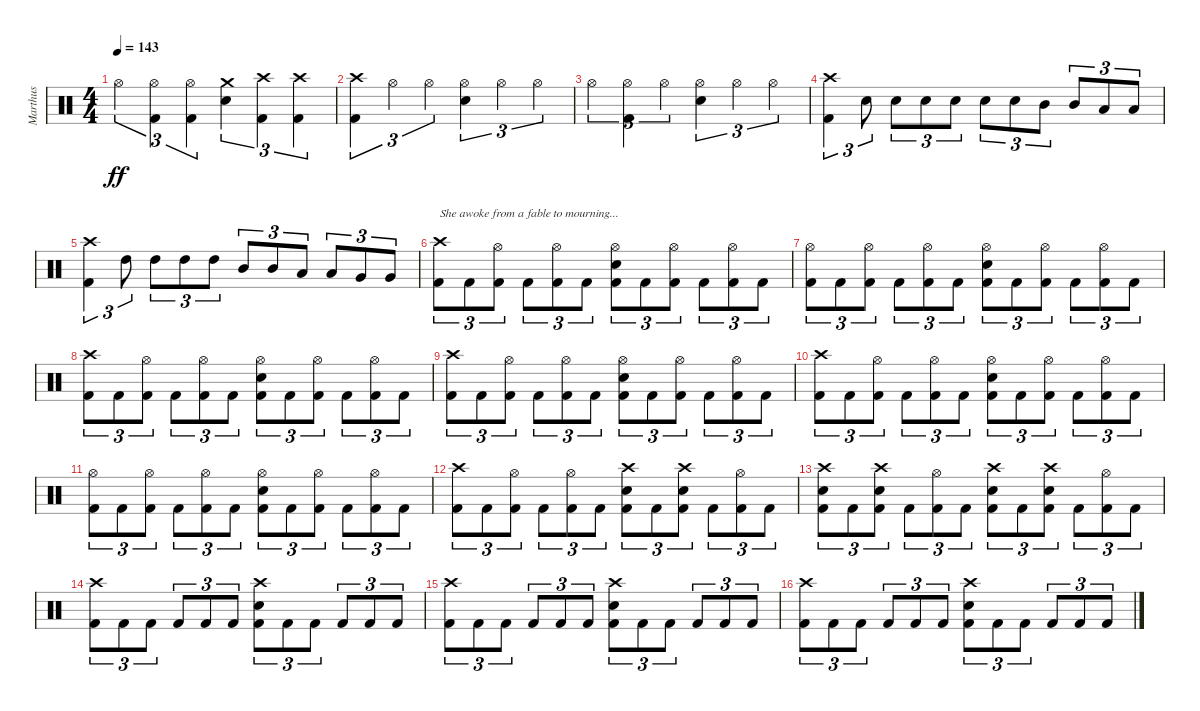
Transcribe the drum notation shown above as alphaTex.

\track ("Marthus" "Marthus") {instrument percussion}
\staff {score}
\articulation defaults
\ts (4 4)
\tempo 143
\clef neutral
\ks c "Hi-Hat (open)".4{tu (3 2) dy ff}
("Hi-Hat (open)" "Kick (hit) 2").4{tu (3 2)} ("Hi-Hat (open)" "Kick (hit) 2").4{tu (3 2)} ("Crash medium (hit)" "Electric Snare (hit)").4{tu (3 2)} ("Crash high (hit)" "Kick (hit) 2").4{tu (3 2)} ("Crash high (hit)" "Kick (hit) 2").4{tu (3 2)} |
("Crash high (hit)" "Kick (hit) 2").4{tu (3 2)} "Hi-Hat (open)".4{tu (3 2)} "Hi-Hat (open)".4{tu (3 2)} ("Hi-Hat (open)" "Electric Snare (hit)").4{tu (3 2)} "Hi-Hat (open)".4{tu (3 2)} "Hi-Hat (open)".4{tu (3 2)} |
"Hi-Hat (open)".4{tu (3 2)} ("Hi-Hat (open)" "Kick (hit) 2").4{tu (3 2)} "Hi-Hat (open)".4{tu (3 2)} ("Hi-Hat (open)" "Electric Snare (hit)").4{tu (3 2)} "Hi-Hat (open)".4{tu (3 2)} "Hi-Hat (open)".4{tu (3 2)} |
("Crash high (hit)" "Kick (hit) 2").4{tu (3 2)} "Electric Snare (hit)".8{tu (3 2)} "Electric Snare (hit)".8{tu (3 2)} "Electric Snare (hit)".8{tu (3 2)} "Electric Snare (hit)".8{tu (3 2)} "Electric Snare (hit)".8{tu (3 2)} "Electric Snare (hit)".8{tu (3 2)} "Mid Tom (hit)".8{tu (3 2)} "Mid Tom (hit)".8{tu (3 2)} "Low Tom (hit)".8{tu (3 2)} "Low Tom (hit)".8{tu (3 2)} |
("Crash high (hit)" "Kick (hit) 2").4{tu (3 2)} "High Tom (hit)".8{tu (3 2)} "High Tom (hit)".8{tu (3 2)} "High Tom (hit)".8{tu (3 2)} "High Tom (hit)".8{tu (3 2)} "Mid Tom (hit)".8{tu (3 2)} "Mid Tom (hit)".8{tu (3 2)} "Low Tom (hit)".8{tu (3 2)} "Low Tom (hit)".8{tu (3 2)} "Very Low Tom (hit)".8{tu (3 2)} "Very Low Tom (hit)".8{tu (3 2)} |
("Crash high (hit)" "Kick (hit) 2").8{tu (3 2) txt "She awoke from a fable to mourning..."} "Kick (hit) 2".8{tu (3 2)} ("Hi-Hat (open)" "Kick (hit) 2").8{tu (3 2)} "Kick (hit) 2".8{tu (3 2)} ("Hi-Hat (open)" "Kick (hit) 2").8{tu (3 2)} "Kick (hit) 2".8{tu (3 2)} ("Hi-Hat (open)" "Electric Snare (hit)" "Kick (hit) 2").8{tu (3 2)} "Kick (hit) 2".8{tu (3 2)} ("Hi-Hat (open)" "Kick (hit) 2").8{tu (3 2)} "Kick (hit) 2".8{tu (3 2)} ("Hi-Hat (open)" "Kick (hit) 2").8{tu (3 2)} "Kick (hit) 2".8{tu (3 2)} |
("Hi-Hat (open)" "Kick (hit) 2").8{tu (3 2)} "Kick (hit) 2".8{tu (3 2)} ("Hi-Hat (open)" "Kick (hit) 2").8{tu (3 2)} "Kick (hit) 2".8{tu (3 2)} ("Hi-Hat (open)" "Kick (hit) 2").8{tu (3 2)} "Kick (hit) 2".8{tu (3 2)} ("Hi-Hat (open)" "Electric Snare (hit)" "Kick (hit) 2").8{tu (3 2)} "Kick (hit) 2".8{tu (3 2)} ("Hi-Hat (open)" "Kick (hit) 2").8{tu (3 2)} "Kick (hit) 2".8{tu (3 2)} ("Hi-Hat (open)" "Kick (hit) 2").8{tu (3 2)} "Kick (hit) 2".8{tu (3 2)} |
("Crash high (hit)" "Kick (hit) 2").8{tu (3 2)} "Kick (hit) 2".8{tu (3 2)} ("Hi-Hat (open)" "Kick (hit) 2").8{tu (3 2)} "Kick (hit) 2".8{tu (3 2)} ("Hi-Hat (open)" "Kick (hit) 2").8{tu (3 2)} "Kick (hit) 2".8{tu (3 2)} ("Hi-Hat (open)" "Electric Snare (hit)" "Kick (hit) 2").8{tu (3 2)} "Kick (hit) 2".8{tu (3 2)} ("Hi-Hat (open)" "Kick (hit) 2").8{tu (3 2)} "Kick (hit) 2".8{tu (3 2)} ("Hi-Hat (open)" "Kick (hit) 2").8{tu (3 2)} "Kick (hit) 2".8{tu (3 2)} |
("Crash high (hit)" "Kick (hit) 2").8{tu (3 2)} "Kick (hit) 2".8{tu (3 2)} ("Hi-Hat (open)" "Kick (hit) 2").8{tu (3 2)} "Kick (hit) 2".8{tu (3 2)} ("Hi-Hat (open)" "Kick (hit) 2").8{tu (3 2)} "Kick (hit) 2".8{tu (3 2)} ("Hi-Hat (open)" "Electric Snare (hit)" "Kick (hit) 2").8{tu (3 2)} "Kick (hit) 2".8{tu (3 2)} ("Hi-Hat (open)" "Kick (hit) 2").8{tu (3 2)} "Kick (hit) 2".8{tu (3 2)} ("Hi-Hat (open)" "Kick (hit) 2").8{tu (3 2)} "Kick (hit) 2".8{tu (3 2)} |
("Crash high (hit)" "Kick (hit) 2").8{tu (3 2)} "Kick (hit) 2".8{tu (3 2)} ("Hi-Hat (open)" "Kick (hit) 2").8{tu (3 2)} "Kick (hit) 2".8{tu (3 2)} ("Hi-Hat (open)" "Kick (hit) 2").8{tu (3 2)} "Kick (hit) 2".8{tu (3 2)} ("Hi-Hat (open)" "Electric Snare (hit)" "Kick (hit) 2").8{tu (3 2)} "Kick (hit) 2".8{tu (3 2)} ("Hi-Hat (open)" "Kick (hit) 2").8{tu (3 2)} "Kick (hit) 2".8{tu (3 2)} ("Hi-Hat (open)" "Kick (hit) 2").8{tu (3 2)} "Kick (hit) 2".8{tu (3 2)} |
("Hi-Hat (open)" "Kick (hit) 2").8{tu (3 2)} "Kick (hit) 2".8{tu (3 2)} ("Hi-Hat (open)" "Kick (hit) 2").8{tu (3 2)} "Kick (hit) 2".8{tu (3 2)} ("Hi-Hat (open)" "Kick (hit) 2").8{tu (3 2)} "Kick (hit) 2".8{tu (3 2)} ("Hi-Hat (open)" "Electric Snare (hit)" "Kick (hit) 2").8{tu (3 2)} "Kick (hit) 2".8{tu (3 2)} ("Hi-Hat (open)" "Kick (hit) 2").8{tu (3 2)} "Kick (hit) 2".8{tu (3 2)} ("Hi-Hat (open)" "Kick (hit) 2").8{tu (3 2)} "Kick (hit) 2".8{tu (3 2)} |
("Crash high (hit)" "Kick (hit) 2").8{tu (3 2)} "Kick (hit) 2".8{tu (3 2)} ("Hi-Hat (open)" "Kick (hit) 2").8{tu (3 2)} "Kick (hit) 2".8{tu (3 2)} ("Hi-Hat (open)" "Kick (hit) 2").8{tu (3 2)} "Kick (hit) 2".8{tu (3 2)} ("Crash high (hit)" "Electric Snare (hit)" "Kick (hit) 2").8{tu (3 2)} "Kick (hit) 2".8{tu (3 2)} ("Crash high (hit)" "Electric Snare (hit)" "Kick (hit) 2").8{tu (3 2)} "Kick (hit) 2".8{tu (3 2)} ("Hi-Hat (open)" "Kick (hit) 2").8{tu (3 2)} "Kick (hit) 2".8{tu (3 2)} |
("Crash high (hit)" "Electric Snare (hit)" "Kick (hit) 2").8{tu (3 2)} "Kick (hit) 2".8{tu (3 2)} ("Crash high (hit)" "Electric Snare (hit)" "Kick (hit) 2").8{tu (3 2)} "Kick (hit) 2".8{tu (3 2)} ("Hi-Hat (open)" "Kick (hit) 2").8{tu (3 2)} "Kick (hit) 2".8{tu (3 2)} ("Crash high (hit)" "Electric Snare (hit)" "Kick (hit) 2").8{tu (3 2)} "Kick (hit) 2".8{tu (3 2)} ("Crash high (hit)" "Electric Snare (hit)" "Kick (hit) 2").8{tu (3 2)} "Kick (hit) 2".8{tu (3 2)} ("Hi-Hat (open)" "Kick (hit) 2").8{tu (3 2)} "Kick (hit) 2".8{tu (3 2)} |
("Crash high (hit)" "Kick (hit) 2").8{tu (3 2)} "Kick (hit) 2".8{tu (3 2)} "Kick (hit) 2".8{tu (3 2)} "Kick (hit) 2".8{tu (3 2)} "Kick (hit) 2".8{tu (3 2)} "Kick (hit) 2".8{tu (3 2)} ("Crash high (hit)" "Electric Snare (hit)" "Kick (hit) 2").8{tu (3 2)} "Kick (hit) 2".8{tu (3 2)} "Kick (hit) 2".8{tu (3 2)} "Kick (hit) 2".8{tu (3 2)} "Kick (hit) 2".8{tu (3 2)} "Kick (hit) 2".8{tu (3 2)} |
("Crash high (hit)" "Kick (hit) 2").8{tu (3 2)} "Kick (hit) 2".8{tu (3 2)} "Kick (hit) 2".8{tu (3 2)} "Kick (hit) 2".8{tu (3 2)} "Kick (hit) 2".8{tu (3 2)} "Kick (hit) 2".8{tu (3 2)} ("Crash high (hit)" "Electric Snare (hit)" "Kick (hit) 2").8{tu (3 2)} "Kick (hit) 2".8{tu (3 2)} "Kick (hit) 2".8{tu (3 2)} "Kick (hit) 2".8{tu (3 2)} "Kick (hit) 2".8{tu (3 2)} "Kick (hit) 2".8{tu (3 2)} |
("Crash high (hit)" "Kick (hit) 2").8{tu (3 2)} "Kick (hit) 2".8{tu (3 2)} "Kick (hit) 2".8{tu (3 2)} "Kick (hit) 2".8{tu (3 2)} "Kick (hit) 2".8{tu (3 2)} "Kick (hit) 2".8{tu (3 2)} ("Crash high (hit)" "Electric Snare (hit)" "Kick (hit) 2").8{tu (3 2)} "Kick (hit) 2".8{tu (3 2)} "Kick (hit) 2".8{tu (3 2)} "Kick (hit) 2".8{tu (3 2)} "Kick (hit) 2".8{tu (3 2)} "Kick (hit) 2".8{tu (3 2)}
